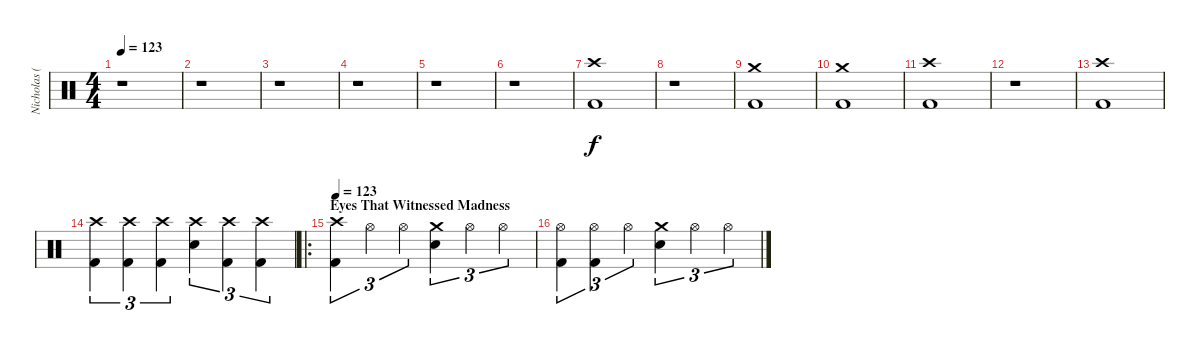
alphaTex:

\track ("Nicholas (Drums)" "Nicholas (") {instrument percussion}
\staff {score}
\articulation defaults
\ts (4 4)
\tempo 123
\clef neutral
\ks c
r.1{dy f} |
r.1 |
r.1 |
r.1 |
r.1 |
r.1 |
("Crash high (hit)" "Kick (hit) 2").1 |
r.1 |
("Crash medium (hit)" "Kick (hit) 2").1 |
("Crash medium (hit)" "Kick (hit) 2").1 |
("Crash high (hit)" "Kick (hit) 2").1 |
r.1 |
("Crash high (hit)" "Kick (hit) 2").1 |
("Crash high (hit)" "Kick (hit) 2").4{tu (3 2)} ("Crash high (hit)" "Kick (hit) 2").4{tu (3 2)} ("Crash high (hit)" "Kick (hit) 2").4{tu (3 2)} ("Crash high (hit)" "Electric Snare (hit)").4{tu (3 2)} ("Crash high (hit)" "Kick (hit) 2").4{tu (3 2)} ("Crash high (hit)" "Kick (hit) 2").4{tu (3 2)} |
\ro
\section ("" "Eyes That Witnessed Madness")
\tempo 123
("Crash high (hit)" "Kick (hit) 2").4{tu (3 2)} "Hi-Hat (open)".4{tu (3 2)} "Hi-Hat (open)".4{tu (3 2)} ("Crash medium (hit)" "Electric Snare (hit)").4{tu (3 2)} "Hi-Hat (open)".4{tu (3 2)} "Hi-Hat (open)".4{tu (3 2)} |
("Hi-Hat (open)" "Kick (hit) 2").4{tu (3 2)} ("Hi-Hat (open)" "Kick (hit) 2").4{tu (3 2)} "Hi-Hat (open)".4{tu (3 2)} ("Crash medium (hit)" "Electric Snare (hit)").4{tu (3 2)} "Hi-Hat (open)".4{tu (3 2)} "Hi-Hat (open)".4{tu (3 2)}
